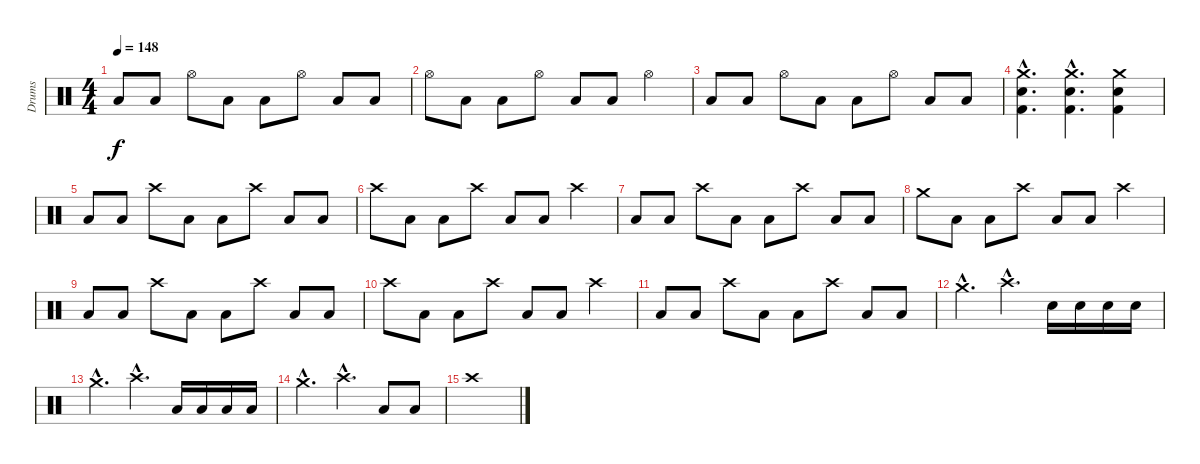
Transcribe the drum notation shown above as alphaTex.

\track ("Drums" "Drums") {instrument percussion}
\staff {score}
\articulation defaults
\ts (4 4)
\tempo 148
\clef neutral
\ks c "Low Floor Tom (hit)".8{dy f} "Low Floor Tom (hit)".8 "Hi-Hat (open)".8 "Low Floor Tom (hit)".8 "Low Floor Tom (hit)".8 "Hi-Hat (open)".8 "Low Floor Tom (hit)".8 "Low Floor Tom (hit)".8
|
"Hi-Hat (open)".8 "Low Floor Tom (hit)".8 "Low Floor Tom (hit)".8 "Hi-Hat (open)".8 "Low Floor Tom (hit)".8 "Low Floor Tom (hit)".8 "Hi-Hat (open)".4 |
"Low Floor Tom (hit)".8 "Low Floor Tom (hit)".8 "Hi-Hat (open)".8 "Low Floor Tom (hit)".8 "Low Floor Tom (hit)".8 "Hi-Hat (open)".8 "Low Floor Tom (hit)".8 "Low Floor Tom (hit)".8 |
("Crash medium (hit)"{hac} "Electric Snare (hit)"{hac} "Kick (hit) 2"{hac}).4{d} ("Crash medium (hit)"{hac} "Electric Snare (hit)"{hac} "Kick (hit) 2"{hac}).4{d} ("Crash medium (hit)" "Electric Snare (hit)" "Kick (hit) 2").4 |
"Low Floor Tom (hit)".8 "Low Floor Tom (hit)".8 "Crash high (hit)".8 "Low Floor Tom (hit)".8 "Low Floor Tom (hit)".8 "Crash high (hit)".8 "Low Floor Tom (hit)".8 "Low Floor Tom (hit)".8 |
"Crash high (hit)".8 "Low Floor Tom (hit)".8 "Low Floor Tom (hit)".8 "Crash high (hit)".8 "Low Floor Tom (hit)".8 "Low Floor Tom (hit)".8 "Crash high (hit)".4 |
"Low Floor Tom (hit)".8 "Low Floor Tom (hit)".8 "Crash high (hit)".8 "Low Floor Tom (hit)".8 "Low Floor Tom (hit)".8 "Crash high (hit)".8 "Low Floor Tom (hit)".8 "Low Floor Tom (hit)".8 |
"Crash medium (hit)".8 "Low Floor Tom (hit)".8 "Low Floor Tom (hit)".8 "Crash high (hit)".8 "Low Floor Tom (hit)".8 "Low Floor Tom (hit)".8 "Crash high (hit)".4 |
"Low Floor Tom (hit)".8 "Low Floor Tom (hit)".8 "Crash high (hit)".8 "Low Floor Tom (hit)".8 "Low Floor Tom (hit)".8 "Crash high (hit)".8 "Low Floor Tom (hit)".8 "Low Floor Tom (hit)".8 |
"Crash high (hit)".8 "Low Floor Tom (hit)".8 "Low Floor Tom (hit)".8 "Crash high (hit)".8 "Low Floor Tom (hit)".8 "Low Floor Tom (hit)".8 "Crash high (hit)".4 |
"Low Floor Tom (hit)".8 "Low Floor Tom (hit)".8 "Crash high (hit)".8 "Low Floor Tom (hit)".8 "Low Floor Tom (hit)".8 "Crash high (hit)".8 "Low Floor Tom (hit)".8 "Low Floor Tom (hit)".8 |
"Crash medium (hit)"{hac}.4{d} "Crash high (hit)"{hac}.4{d} "Snare (hit) 2".16 "Snare (hit) 2".16 "Snare (hit) 2".16 "Snare (hit) 2".16 |
"Crash medium (hit)"{hac}.4{d} "Crash high (hit)"{hac}.4{d} "Low Tom (hit)".16 "Low Tom (hit)".16 "Low Tom (hit)".16 "Low Tom (hit)".16 |
"Crash medium (hit)"{hac}.4{d} "Crash high (hit)"{hac}.4{d} "Low Tom (hit)".8 "Low Tom (hit)".8 |
"Crash high (hit)".1
